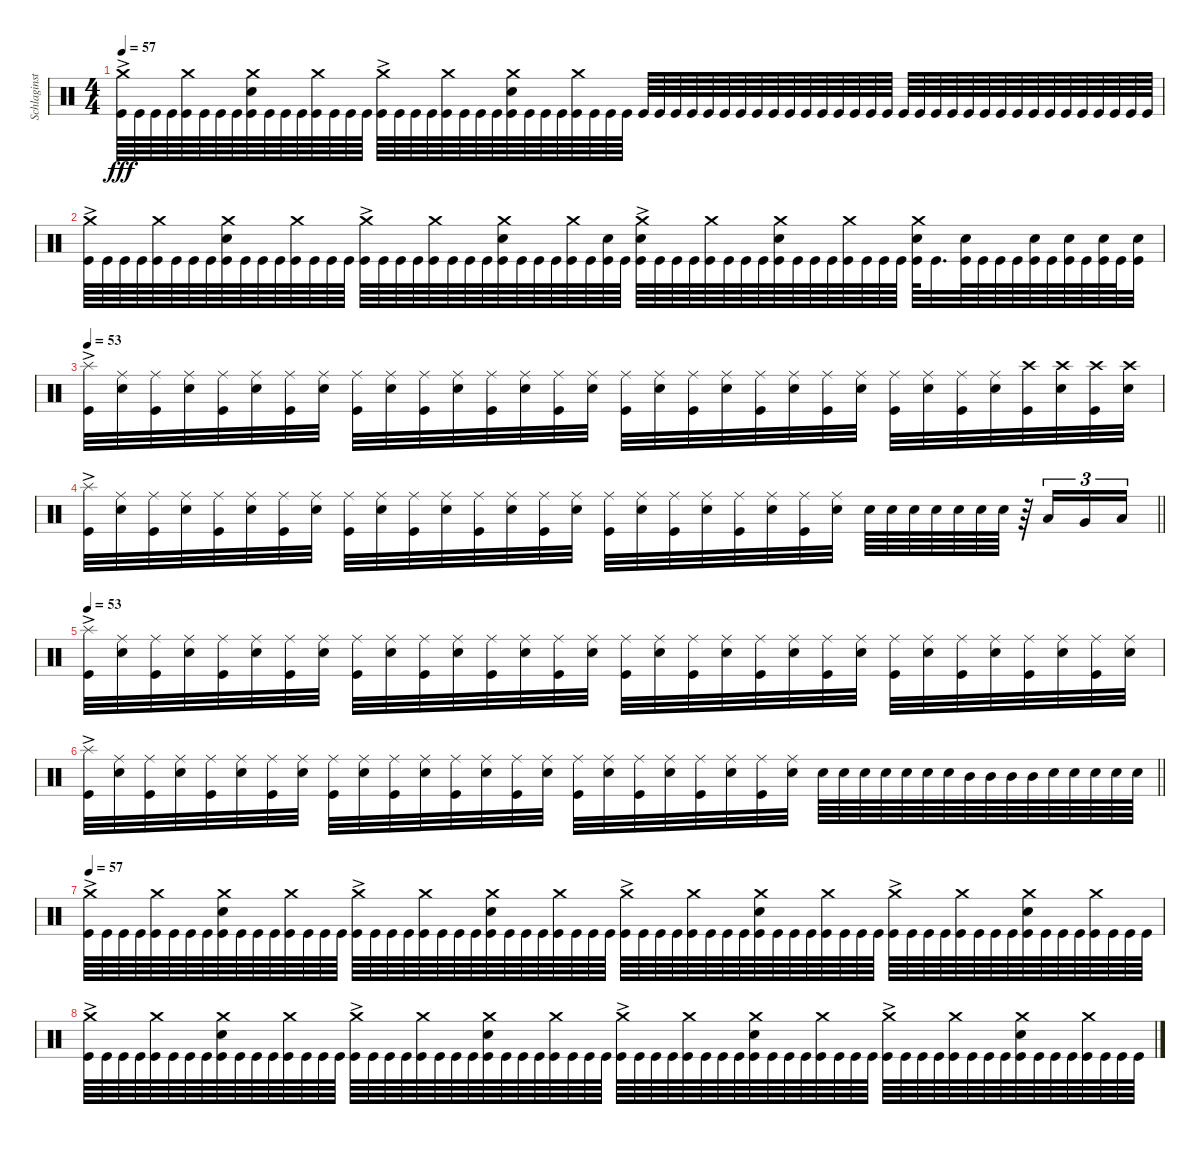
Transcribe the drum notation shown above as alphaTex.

\track ("Schlaginstrumente - Auswahl" "Schlaginst") {instrument percussion}
\staff {score}
\articulation defaults
\ts (4 4)
\tempo 57
\clef neutral
\ks c
("Crash medium (hit)"{ac} "Kick (hit)").64{dy fff} "Kick (hit)".64 "Kick (hit)".64 "Kick (hit)".64 ("Crash medium (hit)" "Kick (hit)").64 "Kick (hit)".64 "Kick (hit)".64 "Kick (hit)".64 ("Crash medium (hit)" "Snare (hit) 2" "Kick (hit)").64 "Kick (hit)".64 "Kick (hit)".64 "Kick (hit)".64 ("Crash medium (hit)" "Kick (hit)").64 "Kick (hit)".64 "Kick (hit)".64 "Kick (hit)".64 ("Crash medium (hit)"{ac} "Kick (hit)").64 "Kick (hit)".64 "Kick (hit)".64 "Kick (hit)".64 ("Crash medium (hit)" "Kick (hit)").64 "Kick (hit)".64 "Kick (hit)".64 "Kick (hit)".64 ("Crash medium (hit)" "Snare (hit) 2" "Kick (hit)").64 "Kick (hit)".64 "Kick (hit)".64 "Kick (hit)".64 ("Crash medium (hit)" "Kick (hit)").64 "Kick (hit)".64 "Kick (hit)".64 "Kick (hit)".64 "Kick (hit)".64 "Kick (hit)".64 "Kick (hit)".64 "Kick (hit)".64 "Kick (hit)".64 "Kick (hit)".64 "Kick (hit)".64 "Kick (hit)".64 "Kick (hit)".64 "Kick (hit)".64 "Kick (hit)".64 "Kick (hit)".64 "Kick (hit)".64 "Kick (hit)".64 "Kick (hit)".64 "Kick (hit)".64 "Kick (hit)".64 "Kick (hit)".64 "Kick (hit)".64 "Kick (hit)".64 "Kick (hit)".64 "Kick (hit)".64 "Kick (hit)".64 "Kick (hit)".64 "Kick (hit)".64 "Kick (hit)".64 "Kick (hit)".64 "Kick (hit)".64 "Kick (hit)".64 "Kick (hit)".64 "Kick (hit)".64 "Kick (hit)".64 |
("Crash medium (hit)"{ac} "Kick (hit)").64 "Kick (hit)".64 "Kick (hit)".64 "Kick (hit)".64 ("Crash medium (hit)" "Kick (hit)").64 "Kick (hit)".64 "Kick (hit)".64 "Kick (hit)".64 ("Crash medium (hit)" "Snare (hit) 2" "Kick (hit)").64 "Kick (hit)".64 "Kick (hit)".64 "Kick (hit)".64 ("Crash medium (hit)" "Kick (hit)").64 "Kick (hit)".64 "Kick (hit)".64 "Kick (hit)".64 ("Crash medium (hit)"{ac} "Kick (hit)").64 "Kick (hit)".64 "Kick (hit)".64 "Kick (hit)".64 ("Crash medium (hit)" "Kick (hit)").64 "Kick (hit)".64 "Kick (hit)".64 "Kick (hit)".64 ("Crash medium (hit)" "Snare (hit) 2" "Kick (hit)").64 "Kick (hit)".64 "Kick (hit)".64 "Kick (hit)".64 ("Crash medium (hit)" "Kick (hit)").64 "Kick (hit)".64 ("Snare (hit) 2" "Kick (hit)").64 "Kick (hit)".64 ("Crash medium (hit)"{ac} "Snare (hit) 2" "Kick (hit)").64 "Kick (hit)".64 "Kick (hit)".64 "Kick (hit)".64 ("Crash medium (hit)" "Kick (hit)").64 "Kick (hit)".64 "Kick (hit)".64 "Kick (hit)".64 ("Crash medium (hit)" "Snare (hit) 2" "Kick (hit)").64 "Kick (hit)".64 "Kick (hit)".64 "Kick (hit)".64 ("Crash medium (hit)" "Kick (hit)").64 "Kick (hit)".64 "Kick (hit)".64 "Kick (hit)".64 ("Crash medium (hit)" "Snare (hit) 2" "Kick (hit)").64 "Kick (hit)".32{d} ("Snare (hit) 2" "Kick (hit)").64 "Kick (hit)".64 "Kick (hit)".64 "Kick (hit)".64 ("Snare (hit) 2" "Kick (hit)").64 "Kick (hit)".64 ("Snare (hit) 2" "Kick (hit)").64 "Kick (hit)".64 ("Snare (hit) 2" "Kick (hit)").64 "Kick (hit)".64 ("Snare (hit) 2" "Kick (hit)").32 |
\tempo 53
("Kick (hit)" "Splash (hit)"{ac}).32 ("Snare (hit) 2" "Ride (middle)").32 ("Kick (hit)" "Ride (middle)").32 ("Snare (hit) 2" "Ride (middle)").32 ("Kick (hit)" "Ride (middle)").32 ("Snare (hit) 2" "Ride (middle)").32 ("Kick (hit)" "Ride (middle)").32 ("Snare (hit) 2" "Ride (middle)").32 ("Kick (hit)" "Ride (middle)").32 ("Snare (hit) 2" "Ride (middle)").32 ("Kick (hit)" "Ride (middle)").32 ("Snare (hit) 2" "Ride (middle)").32 ("Kick (hit)" "Ride (middle)").32 ("Snare (hit) 2" "Ride (middle)").32 ("Kick (hit)" "Ride (middle)").32 ("Snare (hit) 2" "Ride (middle)").32 ("Kick (hit)" "Ride (middle)").32 ("Snare (hit) 2" "Ride (middle)").32 ("Kick (hit)" "Ride (middle)").32 ("Snare (hit) 2" "Ride (middle)").32 ("Kick (hit)" "Ride (middle)").32 ("Snare (hit) 2" "Ride (middle)").32 ("Kick (hit)" "Ride (middle)").32 ("Snare (hit) 2" "Ride (middle)").32 ("Kick (hit)" "Ride (middle)").32 ("Snare (hit) 2" "Ride (middle)").32 ("Kick (hit)" "Ride (middle)").32 ("Snare (hit) 2" "Ride (middle)").32 ("Crash high (hit)" "Kick (hit)").32 ("Crash high (hit)" "Snare (hit) 2").32 ("Crash high (hit)" "Kick (hit)").32 ("Crash high (hit)" "Snare (hit) 2").32 |
\barLineRight lightlight
("Kick (hit)" "Splash (hit)"{ac}).32 ("Snare (hit) 2" "Ride (middle)").32 ("Kick (hit)" "Ride (middle)").32 ("Snare (hit) 2" "Ride (middle)").32 ("Kick (hit)" "Ride (middle)").32 ("Snare (hit) 2" "Ride (middle)").32 ("Kick (hit)" "Ride (middle)").32 ("Snare (hit) 2" "Ride (middle)").32 ("Kick (hit)" "Ride (middle)").32 ("Snare (hit) 2" "Ride (middle)").32 ("Kick (hit)" "Ride (middle)").32 ("Snare (hit) 2" "Ride (middle)").32 ("Kick (hit)" "Ride (middle)").32 ("Snare (hit) 2" "Ride (middle)").32 ("Kick (hit)" "Ride (middle)").32 ("Snare (hit) 2" "Ride (middle)").32 ("Kick (hit)" "Ride (middle)").32 ("Snare (hit) 2" "Ride (middle)").32 ("Kick (hit)" "Ride (middle)").32 ("Snare (hit) 2" "Ride (middle)").32 ("Kick (hit)" "Ride (middle)").32 ("Snare (hit) 2" "Ride (middle)").32 ("Kick (hit)" "Ride (middle)").32 ("Snare (hit) 2" "Ride (middle)").32 "Snare (hit) 2".64 "Snare (hit) 2".64 "Snare (hit) 2".64 "Snare (hit) 2".64 "Snare (hit) 2".64 "Snare (hit) 2".64 "Snare (hit) 2".64 r.64 "Low Tom (hit)".16{tu (3 2)} "Very Low Tom (hit)".16{tu (3 2)} "Low Floor Tom (hit)".16{tu (3 2)} |
\tempo 53
("Kick (hit)" "Splash (hit)"{ac}).32 ("Snare (hit) 2" "Ride (middle)").32 ("Kick (hit)" "Ride (middle)").32 ("Snare (hit) 2" "Ride (middle)").32 ("Kick (hit)" "Ride (middle)").32 ("Snare (hit) 2" "Ride (middle)").32 ("Kick (hit)" "Ride (middle)").32 ("Snare (hit) 2" "Ride (middle)").32 ("Kick (hit)" "Ride (middle)").32 ("Snare (hit) 2" "Ride (middle)").32 ("Kick (hit)" "Ride (middle)").32 ("Snare (hit) 2" "Ride (middle)").32 ("Kick (hit)" "Ride (middle)").32 ("Snare (hit) 2" "Ride (middle)").32 ("Kick (hit)" "Ride (middle)").32 ("Snare (hit) 2" "Ride (middle)").32 ("Kick (hit)" "Ride (middle)").32 ("Snare (hit) 2" "Ride (middle)").32 ("Kick (hit)" "Ride (middle)").32 ("Snare (hit) 2" "Ride (middle)").32 ("Kick (hit)" "Ride (middle)").32 ("Snare (hit) 2" "Ride (middle)").32 ("Kick (hit)" "Ride (middle)").32 ("Snare (hit) 2" "Ride (middle)").32 ("Kick (hit)" "Ride (middle)").32 ("Snare (hit) 2" "Ride (middle)").32 ("Kick (hit)" "Ride (middle)").32 ("Snare (hit) 2" "Ride (middle)").32 ("Kick (hit)" "Ride (middle)").32 ("Snare (hit) 2" "Ride (middle)").32 ("Kick (hit)" "Ride (middle)").32 ("Snare (hit) 2" "Ride (middle)").32 |
\barLineRight lightlight
("Kick (hit)" "Splash (hit)"{ac}).32 ("Snare (hit) 2" "Ride (middle)").32 ("Kick (hit)" "Ride (middle)").32 ("Snare (hit) 2" "Ride (middle)").32 ("Kick (hit)" "Ride (middle)").32 ("Snare (hit) 2" "Ride (middle)").32 ("Kick (hit)" "Ride (middle)").32 ("Snare (hit) 2" "Ride (middle)").32 ("Kick (hit)" "Ride (middle)").32 ("Snare (hit) 2" "Ride (middle)").32 ("Kick (hit)" "Ride (middle)").32 ("Snare (hit) 2" "Ride (middle)").32 ("Kick (hit)" "Ride (middle)").32 ("Snare (hit) 2" "Ride (middle)").32 ("Kick (hit)" "Ride (middle)").32 ("Snare (hit) 2" "Ride (middle)").32 ("Kick (hit)" "Ride (middle)").32 ("Snare (hit) 2" "Ride (middle)").32 ("Kick (hit)" "Ride (middle)").32 ("Snare (hit) 2" "Ride (middle)").32 ("Kick (hit)" "Ride (middle)").32 ("Snare (hit) 2" "Ride (middle)").32 ("Kick (hit)" "Ride (middle)").32 ("Snare (hit) 2" "Ride (middle)").32 "Snare (hit) 2".64 "Snare (hit) 2".64 "Snare (hit) 2".64 "Snare (hit) 2".64 "Snare (hit) 2".64 "Snare (hit) 2".64 "Snare (hit) 2".64 "Mid Tom (hit)".64 "Mid Tom (hit)".64 "Mid Tom (hit)".64 "Mid Tom (hit)".64 "Snare (hit) 2".64 "Snare (hit) 2".64 "Snare (hit) 2".64 "Snare (hit) 2".64 "Snare (hit) 2".64 |
\tempo 57
("Crash medium (hit)"{ac} "Kick (hit)").64 "Kick (hit)".64 "Kick (hit)".64 "Kick (hit)".64 ("Crash medium (hit)" "Kick (hit)").64 "Kick (hit)".64 "Kick (hit)".64 "Kick (hit)".64 ("Crash medium (hit)" "Snare (hit) 2" "Kick (hit)").64 "Kick (hit)".64 "Kick (hit)".64 "Kick (hit)".64 ("Crash medium (hit)" "Kick (hit)").64 "Kick (hit)".64 "Kick (hit)".64 "Kick (hit)".64 ("Crash medium (hit)"{ac} "Kick (hit)").64 "Kick (hit)".64 "Kick (hit)".64 "Kick (hit)".64 ("Crash medium (hit)" "Kick (hit)").64 "Kick (hit)".64 "Kick (hit)".64 "Kick (hit)".64 ("Crash medium (hit)" "Snare (hit) 2" "Kick (hit)").64 "Kick (hit)".64 "Kick (hit)".64 "Kick (hit)".64 ("Crash medium (hit)" "Kick (hit)").64 "Kick (hit)".64 "Kick (hit)".64 "Kick (hit)".64 ("Crash medium (hit)"{ac} "Kick (hit)").64 "Kick (hit)".64 "Kick (hit)".64 "Kick (hit)".64 ("Crash medium (hit)" "Kick (hit)").64 "Kick (hit)".64 "Kick (hit)".64 "Kick (hit)".64 ("Crash medium (hit)" "Snare (hit) 2" "Kick (hit)").64 "Kick (hit)".64 "Kick (hit)".64 "Kick (hit)".64 ("Crash medium (hit)" "Kick (hit)").64 "Kick (hit)".64 "Kick (hit)".64 "Kick (hit)".64 ("Crash medium (hit)"{ac} "Kick (hit)").64 "Kick (hit)".64 "Kick (hit)".64 "Kick (hit)".64 ("Crash medium (hit)" "Kick (hit)").64 "Kick (hit)".64 "Kick (hit)".64 "Kick (hit)".64 ("Crash medium (hit)" "Snare (hit) 2" "Kick (hit)").64 "Kick (hit)".64 "Kick (hit)".64 "Kick (hit)".64 ("Crash medium (hit)" "Kick (hit)").64 "Kick (hit)".64 "Kick (hit)".64 "Kick (hit)".64 |
("Crash medium (hit)"{ac} "Kick (hit)").64 "Kick (hit)".64 "Kick (hit)".64 "Kick (hit)".64 ("Crash medium (hit)" "Kick (hit)").64 "Kick (hit)".64 "Kick (hit)".64 "Kick (hit)".64 ("Crash medium (hit)" "Snare (hit) 2" "Kick (hit)").64 "Kick (hit)".64 "Kick (hit)".64 "Kick (hit)".64 ("Crash medium (hit)" "Kick (hit)").64 "Kick (hit)".64 "Kick (hit)".64 "Kick (hit)".64 ("Crash medium (hit)"{ac} "Kick (hit)").64 "Kick (hit)".64 "Kick (hit)".64 "Kick (hit)".64 ("Crash medium (hit)" "Kick (hit)").64 "Kick (hit)".64 "Kick (hit)".64 "Kick (hit)".64 ("Crash medium (hit)" "Snare (hit) 2" "Kick (hit)").64 "Kick (hit)".64 "Kick (hit)".64 "Kick (hit)".64 ("Crash medium (hit)" "Kick (hit)").64 "Kick (hit)".64 "Kick (hit)".64 "Kick (hit)".64 ("Crash medium (hit)"{ac} "Kick (hit)").64 "Kick (hit)".64 "Kick (hit)".64 "Kick (hit)".64 ("Crash medium (hit)" "Kick (hit)").64 "Kick (hit)".64 "Kick (hit)".64 "Kick (hit)".64 ("Crash medium (hit)" "Snare (hit) 2" "Kick (hit)").64 "Kick (hit)".64 "Kick (hit)".64 "Kick (hit)".64 ("Crash medium (hit)" "Kick (hit)").64 "Kick (hit)".64 "Kick (hit)".64 "Kick (hit)".64 ("Crash medium (hit)"{ac} "Kick (hit)").64 "Kick (hit)".64 "Kick (hit)".64 "Kick (hit)".64 ("Crash medium (hit)" "Kick (hit)").64 "Kick (hit)".64 "Kick (hit)".64 "Kick (hit)".64 ("Crash medium (hit)" "Snare (hit) 2" "Kick (hit)").64 "Kick (hit)".64 "Kick (hit)".64 "Kick (hit)".64 ("Crash medium (hit)" "Kick (hit)").64 "Kick (hit)".64 "Kick (hit)".64 "Kick (hit)".64
